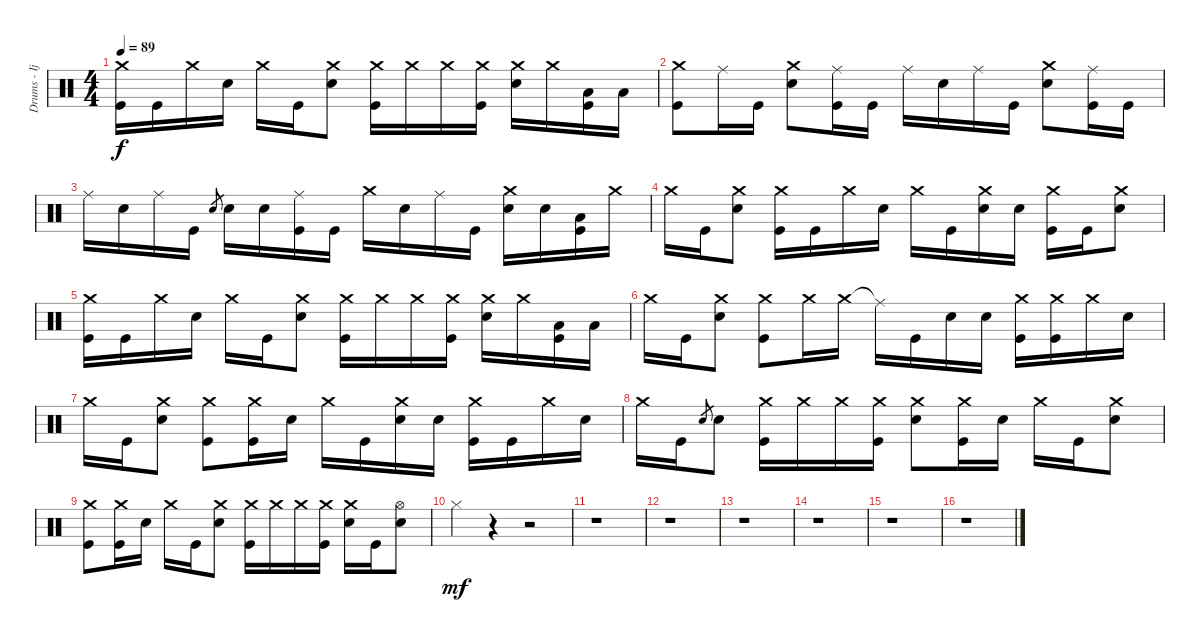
\track ("Drums - Ijichi" "Drums - Ij") {instrument percussion}
\staff {score}
\articulation defaults
\ts (4 4)
\tempo 89
\clef neutral
\ks c
("Crash medium (hit)" "Kick (hit)").16{dy f} "Kick (hit)".16 "Crash medium (hit)".16 "Electric Snare (hit)".16 "Crash medium (hit)".16 "Kick (hit)".16 ("Crash medium (hit)" "Electric Snare (hit)").8 ("Crash medium (hit)" "Kick (hit)").16 "Crash medium (hit)".16 "Crash medium (hit)".16 ("Crash medium (hit)" "Kick (hit)").16 ("Crash medium (hit)" "Electric Snare (hit)").16 "Crash medium (hit)".16 ("Low Tom (hit)" "Kick (hit)").16 "Low Tom (hit)".16 |
("Crash medium (hit)" "Kick (hit)").8 "Ride (middle)".16 "Kick (hit)".16 ("Crash medium (hit)" "Electric Snare (hit)").8 ("Ride (middle)" "Kick (hit)").16 "Kick (hit)".16 "Ride (middle)".16 "Electric Snare (hit)".16 "Ride (middle)".16 "Kick (hit)".16 ("Crash medium (hit)" "Electric Snare (hit)").8 ("Ride (middle)" "Kick (hit)").16 "Kick (hit)".16 |
"Ride (middle)".16 "Electric Snare (hit)".16 "Ride (middle)".16 "Kick (hit)".16 "Electric Snare (hit)".8{gr} "Electric Snare (hit)".16 "Electric Snare (hit)".16 ("Ride (middle)" "Kick (hit)").16 "Kick (hit)".16 "Crash medium (hit)".16 "Electric Snare (hit)".16 "Ride (middle)".16 "Kick (hit)".16 ("Crash medium (hit)" "Electric Snare (hit)").16 "Electric Snare (hit)".16 ("Low Tom (hit)" "Kick (hit)").16 "Crash medium (hit)".16 |
"Crash medium (hit)".16 "Kick (hit)".16 ("Crash medium (hit)" "Electric Snare (hit)").8 ("Crash medium (hit)" "Kick (hit)").16 "Kick (hit)".16 "Crash medium (hit)".16 "Electric Snare (hit)".16 "Crash medium (hit)".16 "Kick (hit)".16 ("Crash medium (hit)" "Electric Snare (hit)").16 "Electric Snare (hit)".16 ("Crash medium (hit)" "Kick (hit)").16 "Kick (hit)".16 ("Crash medium (hit)" "Electric Snare (hit)").8 |
("Crash medium (hit)" "Kick (hit)").16 "Kick (hit)".16 "Crash medium (hit)".16 "Electric Snare (hit)".16 "Crash medium (hit)".16 "Kick (hit)".16 ("Crash medium (hit)" "Electric Snare (hit)").8 ("Crash medium (hit)" "Kick (hit)").16 "Crash medium (hit)".16 "Crash medium (hit)".16 ("Crash medium (hit)" "Kick (hit)").16 ("Crash medium (hit)" "Electric Snare (hit)").16 "Crash medium (hit)".16 ("Low Tom (hit)" "Kick (hit)").16 "Low Tom (hit)".16 |
"Crash medium (hit)".16 "Kick (hit)".16 ("Crash medium (hit)" "Electric Snare (hit)").8 ("Crash medium (hit)" "Kick (hit)").8 "Crash medium (hit)".16 "Crash medium (hit)".16 "Ride (middle)"{t}.16 "Kick (hit)".16 "Electric Snare (hit)".16 "Electric Snare (hit)".16 ("Crash medium (hit)" "Kick (hit)").16 ("Crash medium (hit)" "Kick (hit)").16 "Crash medium (hit)".16 "Electric Snare (hit)".16 |
"Crash medium (hit)".16 "Kick (hit)".16 ("Crash medium (hit)" "Electric Snare (hit)").8 ("Crash medium (hit)" "Kick (hit)").8 ("Crash medium (hit)" "Kick (hit)").16 "Electric Snare (hit)".16 "Crash medium (hit)".16 "Kick (hit)".16 ("Crash medium (hit)" "Electric Snare (hit)").16 "Electric Snare (hit)".16 ("Crash medium (hit)" "Kick (hit)").16 "Kick (hit)".16 "Crash medium (hit)".16 "Electric Snare (hit)".16 |
"Crash medium (hit)".16 "Kick (hit)".16 "Electric Snare (hit)".8{gr} "Electric Snare (hit)".8 ("Crash medium (hit)" "Kick (hit)").16 "Crash medium (hit)".16 "Crash medium (hit)".16 ("Crash medium (hit)" "Kick (hit)").16 ("Crash medium (hit)" "Electric Snare (hit)").8 ("Crash medium (hit)" "Kick (hit)").16 "Electric Snare (hit)".16 "Crash medium (hit)".16 "Kick (hit)".16 ("Crash medium (hit)" "Electric Snare (hit)").8 |
("Crash medium (hit)" "Kick (hit)").8 ("Crash medium (hit)" "Kick (hit)").16 "Electric Snare (hit)".16 "Crash medium (hit)".16 "Kick (hit)".16 ("Crash medium (hit)" "Electric Snare (hit)").8 ("Crash medium (hit)" "Kick (hit)").16 "Crash medium (hit)".16 "Crash medium (hit)".16 ("Crash medium (hit)" "Kick (hit)").16 ("Crash medium (hit)" "Electric Snare (hit)").16 "Kick (hit)".16 ("Hi-Hat (open)" "Electric Snare (hit)").8 |
"Hi-Hat (closed)".4{dy mf} r.4 r.2 |
r.1 |
r.1 |
r.1 |
r.1 |
r.1 |
r.1
